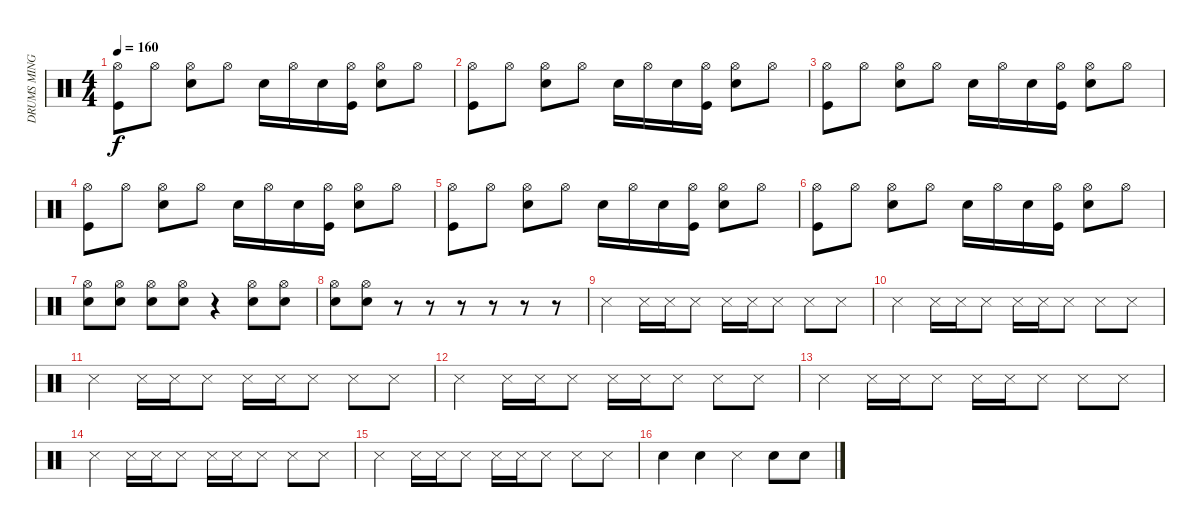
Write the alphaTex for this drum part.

\track ("DRUMS MING" "DRUMS MING") {instrument percussion}
\staff {score}
\articulation defaults
\ts (4 4)
\tempo 160
\clef neutral
\ks c
("Hi-Hat (open)" "Kick (hit)").8{dy f} "Hi-Hat (open)".8 ("Hi-Hat (open)" "Snare (hit) 2").8 "Hi-Hat (open)".8 "Snare (hit) 2".16 "Hi-Hat (open)".16 "Snare (hit) 2".16 ("Hi-Hat (open)" "Kick (hit)").16 ("Hi-Hat (open)" "Snare (hit) 2").8 "Hi-Hat (open)".8 |
("Hi-Hat (open)" "Kick (hit)").8 "Hi-Hat (open)".8 ("Hi-Hat (open)" "Snare (hit) 2").8 "Hi-Hat (open)".8 "Snare (hit) 2".16 "Hi-Hat (open)".16 "Snare (hit) 2".16 ("Hi-Hat (open)" "Kick (hit)").16 ("Hi-Hat (open)" "Snare (hit) 2").8 "Hi-Hat (open)".8 |
("Hi-Hat (open)" "Kick (hit)").8 "Hi-Hat (open)".8 ("Hi-Hat (open)" "Snare (hit) 2").8 "Hi-Hat (open)".8 "Snare (hit) 2".16 "Hi-Hat (open)".16 "Snare (hit) 2".16 ("Hi-Hat (open)" "Kick (hit)").16 ("Hi-Hat (open)" "Snare (hit) 2").8 "Hi-Hat (open)".8 |
("Hi-Hat (open)" "Kick (hit)").8 "Hi-Hat (open)".8 ("Hi-Hat (open)" "Snare (hit) 2").8 "Hi-Hat (open)".8 "Snare (hit) 2".16 "Hi-Hat (open)".16 "Snare (hit) 2".16 ("Hi-Hat (open)" "Kick (hit)").16 ("Hi-Hat (open)" "Snare (hit) 2").8 "Hi-Hat (open)".8 |
("Hi-Hat (open)" "Kick (hit)").8 "Hi-Hat (open)".8 ("Hi-Hat (open)" "Snare (hit) 2").8 "Hi-Hat (open)".8 "Snare (hit) 2".16 "Hi-Hat (open)".16 "Snare (hit) 2".16 ("Hi-Hat (open)" "Kick (hit)").16 ("Hi-Hat (open)" "Snare (hit) 2").8 "Hi-Hat (open)".8 |
("Hi-Hat (open)" "Kick (hit)").8 "Hi-Hat (open)".8 ("Hi-Hat (open)" "Snare (hit) 2").8 "Hi-Hat (open)".8 "Snare (hit) 2".16 "Hi-Hat (open)".16 "Snare (hit) 2".16 ("Hi-Hat (open)" "Kick (hit)").16 ("Hi-Hat (open)" "Snare (hit) 2").8 "Hi-Hat (open)".8 |
("Hi-Hat (open)" "Snare (hit) 2").8 ("Hi-Hat (open)" "Snare (hit) 2").8 ("Hi-Hat (open)" "Snare (hit) 2").8 ("Hi-Hat (open)" "Snare (hit) 2").8 r.4 ("Hi-Hat (open)" "Snare (hit) 2").8 ("Snare (hit) 2" "Hi-Hat (open)").8 |
("Snare (hit) 2" "Hi-Hat (open)").8 ("Snare (hit) 2" "Hi-Hat (open)").8 r.8 r.8 r.8 r.8 r.8 r.8 |
"Snare (side stick) 3".4 "Snare (side stick) 3".16 "Snare (side stick) 3".16 "Snare (side stick) 3".8 "Snare (side stick) 3".16 "Snare (side stick) 3".16 "Snare (side stick) 3".8 "Snare (side stick) 3".8 "Snare (side stick) 3".8 |
"Snare (side stick) 3".4 "Snare (side stick) 3".16 "Snare (side stick) 3".16 "Snare (side stick) 3".8 "Snare (side stick) 3".16 "Snare (side stick) 3".16 "Snare (side stick) 3".8 "Snare (side stick) 3".8 "Snare (side stick) 3".8 |
"Snare (side stick) 3".4 "Snare (side stick) 3".16 "Snare (side stick) 3".16 "Snare (side stick) 3".8 "Snare (side stick) 3".16 "Snare (side stick) 3".16 "Snare (side stick) 3".8 "Snare (side stick) 3".8 "Snare (side stick) 3".8 |
"Snare (side stick) 3".4 "Snare (side stick) 3".16 "Snare (side stick) 3".16 "Snare (side stick) 3".8 "Snare (side stick) 3".16 "Snare (side stick) 3".16 "Snare (side stick) 3".8 "Snare (side stick) 3".8 "Snare (side stick) 3".8 |
"Snare (side stick) 3".4 "Snare (side stick) 3".16 "Snare (side stick) 3".16 "Snare (side stick) 3".8 "Snare (side stick) 3".16 "Snare (side stick) 3".16 "Snare (side stick) 3".8 "Snare (side stick) 3".8 "Snare (side stick) 3".8 |
"Snare (side stick) 3".4 "Snare (side stick) 3".16 "Snare (side stick) 3".16 "Snare (side stick) 3".8 "Snare (side stick) 3".16 "Snare (side stick) 3".16 "Snare (side stick) 3".8 "Snare (side stick) 3".8 "Snare (side stick) 3".8 |
"Snare (side stick) 3".4 "Snare (side stick) 3".16 "Snare (side stick) 3".16 "Snare (side stick) 3".8 "Snare (side stick) 3".16 "Snare (side stick) 3".16 "Snare (side stick) 3".8 "Snare (side stick) 3".8 "Snare (side stick) 3".8 |
"Snare (hit) 2".4 "Snare (hit) 2".4 "Snare (side stick) 3".4 "Snare (hit) 2".8 "Snare (hit) 2".8
